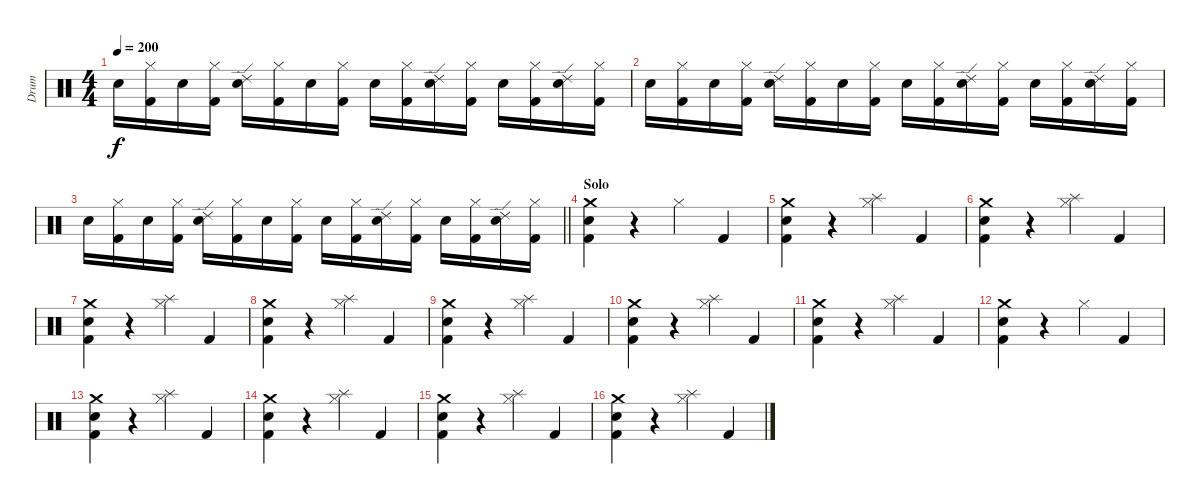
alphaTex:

\track ("Drum" "Drum") {instrument percussion}
\staff {score}
\articulation defaults
\ts (4 4)
\tempo 200
\clef neutral
\ks c "Electric Snare (hit)".16{dy f}
("Hi-Hat (closed)" "Kick (hit) 2").16 "Electric Snare (hit)".16 ("Hi-Hat (closed)" "Kick (hit) 2").16 ("Ride (edge) 2" "Electric Snare (hit)").16 ("Hi-Hat (closed)" "Kick (hit) 2").16 "Electric Snare (hit)".16 ("Hi-Hat (closed)" "Kick (hit) 2").16 "Electric Snare (hit)".16 ("Hi-Hat (closed)" "Kick (hit) 2").16 ("Ride (edge) 2" "Electric Snare (hit)").16 ("Hi-Hat (closed)" "Kick (hit) 2").16 "Electric Snare (hit)".16 ("Hi-Hat (closed)" "Kick (hit) 2").16 ("Ride (edge) 2" "Electric Snare (hit)").16 ("Hi-Hat (closed)" "Kick (hit) 2").16 |
"Electric Snare (hit)".16 ("Hi-Hat (closed)" "Kick (hit) 2").16 "Electric Snare (hit)".16 ("Hi-Hat (closed)" "Kick (hit) 2").16 ("Ride (edge) 2" "Electric Snare (hit)").16 ("Hi-Hat (closed)" "Kick (hit) 2").16 "Electric Snare (hit)".16 ("Hi-Hat (closed)" "Kick (hit) 2").16 "Electric Snare (hit)".16 ("Hi-Hat (closed)" "Kick (hit) 2").16 ("Ride (edge) 2" "Electric Snare (hit)").16 ("Hi-Hat (closed)" "Kick (hit) 2").16 "Electric Snare (hit)".16 ("Hi-Hat (closed)" "Kick (hit) 2").16 ("Ride (edge) 2" "Electric Snare (hit)").16 ("Hi-Hat (closed)" "Kick (hit) 2").16 |
\barLineRight lightlight "Electric Snare (hit)".16
("Hi-Hat (closed)" "Kick (hit) 2").16 "Electric Snare (hit)".16 ("Hi-Hat (closed)" "Kick (hit) 2").16 ("Ride (edge) 2" "Electric Snare (hit)").16 ("Hi-Hat (closed)" "Kick (hit) 2").16 "Electric Snare (hit)".16 ("Hi-Hat (closed)" "Kick (hit) 2").16 "Electric Snare (hit)".16 ("Hi-Hat (closed)" "Kick (hit) 2").16 ("Ride (edge) 2" "Electric Snare (hit)").16 ("Hi-Hat (closed)" "Kick (hit) 2").16 "Electric Snare (hit)".16 ("Hi-Hat (closed)" "Kick (hit) 2").16 ("Ride (edge) 2" "Electric Snare (hit)").16 ("Hi-Hat (closed)" "Kick (hit) 2").16 |
\section ("" "Solo")
("Crash medium (hit)" "Electric Snare (hit)" "Kick (hit) 2").4 r.4 "Hi-Hat (closed)".4 "Kick (hit) 2".4 |
("Crash medium (hit)" "Electric Snare (hit)" "Kick (hit) 2").4 r.4 ("Splash (hit)" "Hi-Hat (closed)").4 "Kick (hit) 2".4 |
("Crash medium (hit)" "Electric Snare (hit)" "Kick (hit) 2").4 r.4 ("Splash (hit)" "Hi-Hat (closed)").4 "Kick (hit) 2".4 |
("Crash medium (hit)" "Electric Snare (hit)" "Kick (hit) 2").4 r.4 ("Splash (hit)" "Hi-Hat (closed)").4 "Kick (hit) 2".4 |
("Crash medium (hit)" "Electric Snare (hit)" "Kick (hit) 2").4 r.4 ("Splash (hit)" "Hi-Hat (closed)").4 "Kick (hit) 2".4 |
("Crash medium (hit)" "Electric Snare (hit)" "Kick (hit) 2").4 r.4 ("Splash (hit)" "Hi-Hat (closed)").4 "Kick (hit) 2".4 |
("Crash medium (hit)" "Electric Snare (hit)" "Kick (hit) 2").4 r.4 ("Splash (hit)" "Hi-Hat (closed)").4 "Kick (hit) 2".4 |
("Crash medium (hit)" "Electric Snare (hit)" "Kick (hit) 2").4 r.4 ("Splash (hit)" "Hi-Hat (closed)").4 "Kick (hit) 2".4 |
("Crash medium (hit)" "Electric Snare (hit)" "Kick (hit) 2").4 r.4 "Hi-Hat (closed)".4 "Kick (hit) 2".4 |
("Crash medium (hit)" "Electric Snare (hit)" "Kick (hit) 2").4 r.4 ("Splash (hit)" "Hi-Hat (closed)").4 "Kick (hit) 2".4 |
("Crash medium (hit)" "Electric Snare (hit)" "Kick (hit) 2").4 r.4 ("Splash (hit)" "Hi-Hat (closed)").4 "Kick (hit) 2".4 |
("Crash medium (hit)" "Electric Snare (hit)" "Kick (hit) 2").4 r.4 ("Splash (hit)" "Hi-Hat (closed)").4 "Kick (hit) 2".4 |
("Crash medium (hit)" "Electric Snare (hit)" "Kick (hit) 2").4 r.4 ("Splash (hit)" "Hi-Hat (closed)").4 "Kick (hit) 2".4
